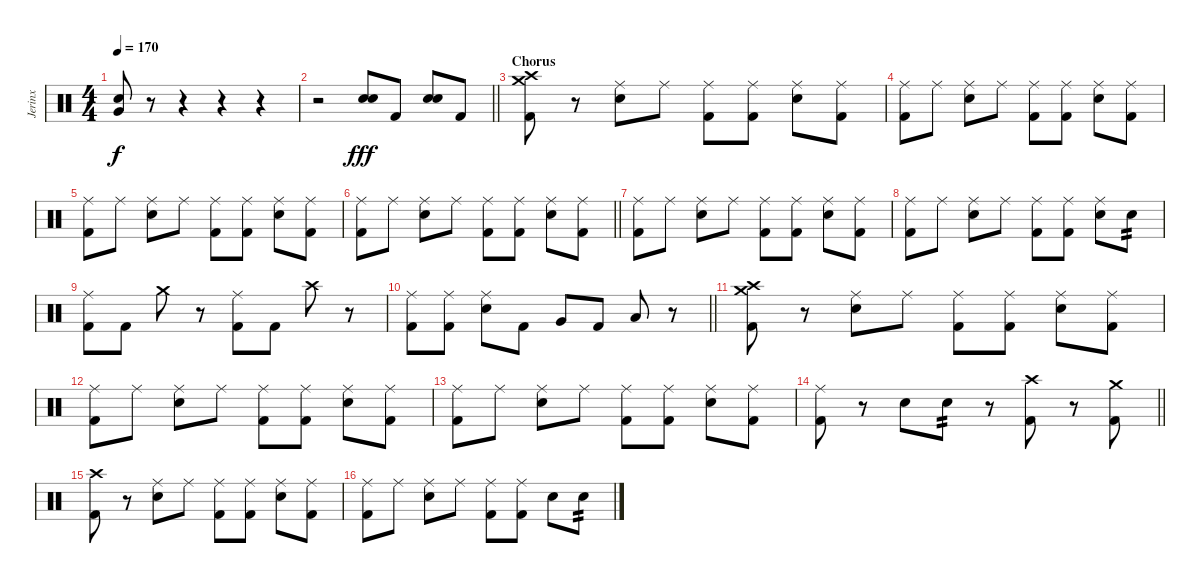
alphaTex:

\track ("Jerinx" "Jerinx") {instrument percussion}
\staff {score}
\articulation defaults
\ts (4 4)
\tempo 170
\clef neutral
\ks c
("Snare (hit) 2" "Very Low Tom (hit)").8{dy f} r.8 r.4 r.4 r.4 |
\barLineRight lightlight
r.2 ("Snare (hit) 2" "Snare (hit) 2").8{bd 240 dy fff} "Kick (hit) 2".8 ("Snare (hit) 2" "Snare (hit) 2").8{bd 240} "Kick (hit) 2".8 |
\section ("" "Chorus")
("Kick (hit) 2" "Crash high (hit)" "Crash medium (hit)").8 r.8 ("Snare (hit) 2" "Ride (middle)").8 "Ride (middle)".8 ("Kick (hit) 2" "Ride (middle)").8 ("Kick (hit) 2" "Ride (middle)").8 ("Snare (hit) 2" "Ride (middle)").8 ("Kick (hit) 2" "Ride (middle)").8 |
("Kick (hit) 2" "Ride (middle)").8 "Ride (middle)".8 ("Snare (hit) 2" "Ride (middle)").8 "Ride (middle)".8 ("Kick (hit) 2" "Ride (middle)").8 ("Kick (hit) 2" "Ride (middle)").8 ("Snare (hit) 2" "Ride (middle)").8 ("Kick (hit) 2" "Ride (middle)").8 |
("Kick (hit) 2" "Ride (middle)").8 "Ride (middle)".8 ("Snare (hit) 2" "Ride (middle)").8 "Ride (middle)".8 ("Kick (hit) 2" "Ride (middle)").8 ("Kick (hit) 2" "Ride (middle)").8 ("Snare (hit) 2" "Ride (middle)").8 ("Kick (hit) 2" "Ride (middle)").8 |
\barLineRight lightlight
("Kick (hit) 2" "Ride (middle)").8 "Ride (middle)".8 ("Snare (hit) 2" "Ride (middle)").8 "Ride (middle)".8 ("Kick (hit) 2" "Ride (middle)").8 ("Kick (hit) 2" "Ride (middle)").8 ("Snare (hit) 2" "Ride (middle)").8 ("Kick (hit) 2" "Ride (middle)").8 |
("Kick (hit) 2" "Ride (middle)").8 "Ride (middle)".8 ("Snare (hit) 2" "Ride (middle)").8 "Ride (middle)".8 ("Kick (hit) 2" "Ride (middle)").8 ("Kick (hit) 2" "Ride (middle)").8 ("Snare (hit) 2" "Ride (middle)").8 ("Kick (hit) 2" "Ride (middle)").8 |
("Kick (hit) 2" "Ride (middle)").8 "Ride (middle)".8 ("Snare (hit) 2" "Ride (middle)").8 "Ride (middle)".8 ("Kick (hit) 2" "Ride (middle)").8 ("Kick (hit) 2" "Ride (middle)").8 ("Snare (hit) 2" "Ride (middle)").8 "Snare (hit) 2".8{tp 2} |
("Kick (hit) 2" "Ride (middle)").8 "Kick (hit) 2".8 "Crash medium (hit)".8 r.8 ("Kick (hit) 2" "Ride (middle)").8 "Kick (hit) 2".8 "Crash high (hit)".8 r.8 |
\barLineRight lightlight
("Kick (hit) 2" "Ride (middle)").8 ("Kick (hit) 2" "Ride (middle)").8 ("Snare (hit) 2" "Ride (middle)").8 "Kick (hit) 2".8 "Very Low Tom (hit)".8 "Kick (hit) 2".8 "Low Tom (hit)".8 r.8 |
("Kick (hit) 2" "Crash high (hit)" "Crash medium (hit)").8 r.8 ("Snare (hit) 2" "Ride (middle)").8 "Ride (middle)".8 ("Kick (hit) 2" "Ride (middle)").8 ("Kick (hit) 2" "Ride (middle)").8 ("Snare (hit) 2" "Ride (middle)").8 ("Kick (hit) 2" "Ride (middle)").8 |
("Kick (hit) 2" "Ride (middle)").8 "Ride (middle)".8 ("Snare (hit) 2" "Ride (middle)").8 "Ride (middle)".8 ("Kick (hit) 2" "Ride (middle)").8 ("Kick (hit) 2" "Ride (middle)").8 ("Snare (hit) 2" "Ride (middle)").8 ("Kick (hit) 2" "Ride (middle)").8 |
("Kick (hit) 2" "Ride (middle)").8 "Ride (middle)".8 ("Snare (hit) 2" "Ride (middle)").8 "Ride (middle)".8 ("Kick (hit) 2" "Ride (middle)").8 ("Kick (hit) 2" "Ride (middle)").8 ("Snare (hit) 2" "Ride (middle)").8 ("Kick (hit) 2" "Ride (middle)").8 |
\barLineRight lightlight
("Kick (hit) 2" "Ride (middle)").8 r.8 "Snare (hit) 2".8 "Snare (hit) 2".8{tp 2} r.8 ("Kick (hit) 2" "Crash high (hit)").8 r.8 ("Kick (hit) 2" "Crash medium (hit)").8 |
("Kick (hit) 2" "Crash high (hit)").8 r.8 ("Snare (hit) 2" "Ride (middle)").8 "Ride (middle)".8 ("Kick (hit) 2" "Ride (middle)").8 ("Kick (hit) 2" "Ride (middle)").8 ("Snare (hit) 2" "Ride (middle)").8 ("Kick (hit) 2" "Ride (middle)").8 |
("Kick (hit) 2" "Ride (middle)").8 "Ride (middle)".8 ("Snare (hit) 2" "Ride (middle)").8 "Ride (middle)".8 ("Kick (hit) 2" "Ride (middle)").8 ("Kick (hit) 2" "Ride (middle)").8 "Snare (hit) 2".8 "Snare (hit) 2".8{tp 2}
